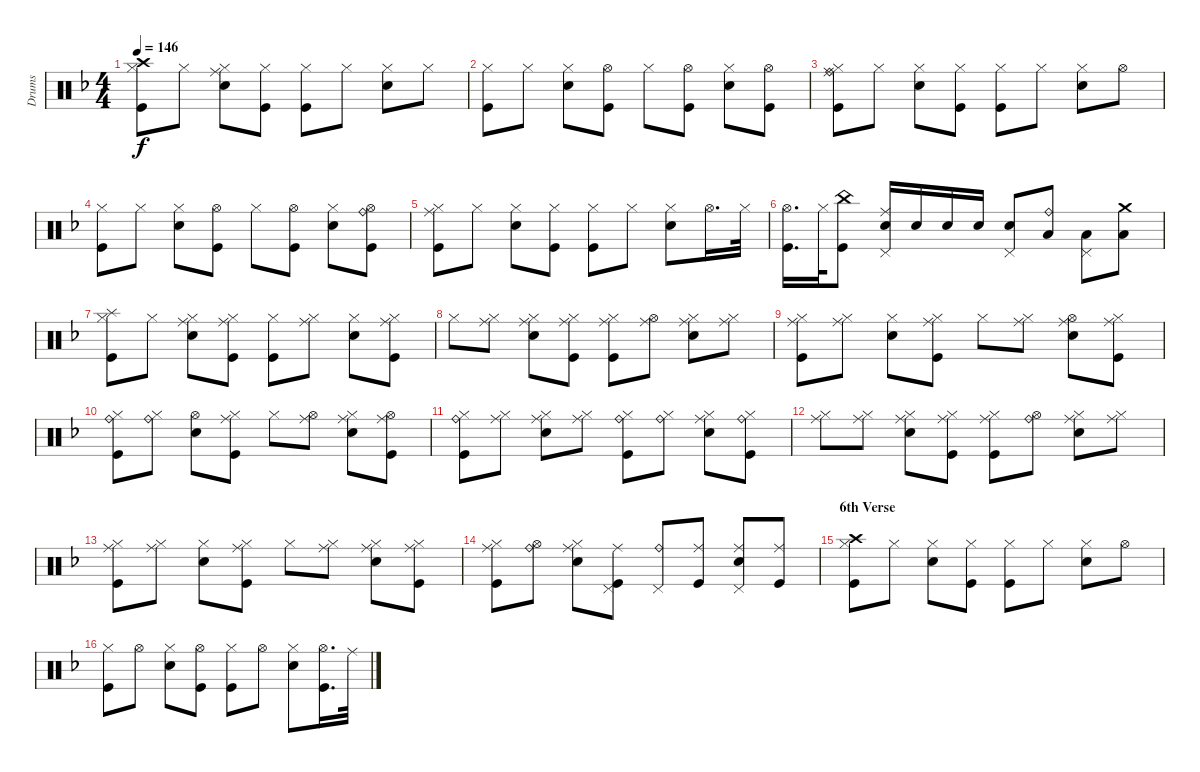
\track ("Drums" "Drums") {instrument percussion}
\staff {score}
\articulation defaults
\ts (4 4)
\tempo 146
\clef neutral
\ks f
("Hi-Hat (closed)" "Crash high (hit)" "Kick (hit)").8{dy f} "Hi-Hat (closed)".8 ("Snare (hit) 2" "Hi-Hat (closed)" "Ride (middle)").8 ("Kick (hit)" "Hi-Hat (closed)").8 ("Kick (hit)" "Hi-Hat (closed)").8 "Hi-Hat (closed)".8 ("Snare (hit) 2" "Hi-Hat (closed)").8 "Hi-Hat (closed)".8 |
("Kick (hit)" "Hi-Hat (closed)").8 "Hi-Hat (closed)".8 ("Snare (hit) 2" "Hi-Hat (closed)").8 ("Kick (hit)" "Hi-Hat (open)").8 "Hi-Hat (closed)".8 ("Kick (hit)" "Hi-Hat (open)").8 ("Snare (hit) 2" "Hi-Hat (closed)").8 ("Kick (hit)" "Hi-Hat (open)").8 |
("Kick (hit)" "Hi-Hat (closed)" "Ride (middle)" "Ride (bell)").8 "Hi-Hat (closed)".8 ("Snare (hit) 2" "Hi-Hat (closed)").8 ("Kick (hit)" "Hi-Hat (closed)").8 ("Kick (hit)" "Hi-Hat (closed)").8 "Hi-Hat (closed)".8 ("Snare (hit) 2" "Hi-Hat (closed)").8 "Hi-Hat (open)".8 |
("Kick (hit)" "Hi-Hat (closed)").8 "Hi-Hat (closed)".8 ("Snare (hit) 2" "Hi-Hat (closed)").8 ("Kick (hit)" "Hi-Hat (open)").8 "Hi-Hat (closed)".8 ("Kick (hit)" "Hi-Hat (open)").8 ("Snare (hit) 2" "Hi-Hat (closed)").8 ("Ride (bell)" "Kick (hit)" "Hi-Hat (open)").8 |
("Hi-Hat (closed)" "Ride (middle)" "Kick (hit)").8 "Hi-Hat (closed)".8 ("Snare (hit) 2" "Hi-Hat (closed)").8 ("Kick (hit)" "Hi-Hat (closed)").8 ("Kick (hit)" "Hi-Hat (closed)").8 "Hi-Hat (closed)".8 ("Snare (hit) 2" "Hi-Hat (closed)").8 "Hi-Hat (open)".16{d} "Hi-Hat (closed)".32 |
("Kick (hit)" "Hi-Hat (open)").16{d} "Hi-Hat (closed)".32 ("Kick (hit)" "China (hit)").8 ("Snare (hit) 2" "Pedal Hi-Hat (hit)" "Ride (middle)").16 "Snare (hit) 2".16 "Snare (hit) 2".16 "Snare (hit) 2".16 ("Snare (hit) 2" "Pedal Hi-Hat (hit)").8 ("Low Tom (hit)" "Ride (bell)").8 ("Low Floor Tom (hit)" "Pedal Hi-Hat (hit)").8 ("Low Floor Tom (hit)" "Crash medium (hit)").8 |
("Kick (hit)" "Hi-Hat (closed)" "Splash (hit)").8 "Hi-Hat (closed)".8 ("Snare (hit) 2" "Hi-Hat (closed)" "Ride (middle)").8 ("Kick (hit)" "Hi-Hat (closed)" "Ride (middle)").8 ("Kick (hit)" "Hi-Hat (closed)").8 ("Hi-Hat (closed)" "Ride (middle)").8 ("Snare (hit) 2" "Hi-Hat (closed)").8 ("Kick (hit)" "Hi-Hat (closed)" "Ride (middle)").8 |
"Hi-Hat (closed)".8 ("Hi-Hat (closed)" "Ride (middle)").8 ("Snare (hit) 2" "Hi-Hat (closed)" "Ride (middle)").8 ("Kick (hit)" "Hi-Hat (closed)" "Ride (middle)").8 ("Kick (hit)" "Hi-Hat (closed)" "Ride (middle)").8 ("Hi-Hat (open)" "Ride (middle)").8 ("Snare (hit) 2" "Hi-Hat (closed)" "Ride (middle)").8 ("Hi-Hat (closed)" "Ride (middle)").8 |
("Kick (hit)" "Hi-Hat (closed)" "Ride (middle)").8 ("Hi-Hat (closed)" "Ride (middle)").8 ("Snare (hit) 2" "Hi-Hat (closed)").8 ("Kick (hit)" "Hi-Hat (closed)" "Ride (middle)").8 "Hi-Hat (closed)".8 ("Hi-Hat (closed)" "Ride (middle)").8 ("Snare (hit) 2" "Hi-Hat (open)" "Ride (middle)").8 ("Kick (hit)" "Hi-Hat (closed)" "Ride (middle)").8 |
("Kick (hit)" "Hi-Hat (closed)" "Ride (bell)").8 ("Hi-Hat (closed)" "Ride (bell)").8 ("Snare (hit) 2" "Hi-Hat (open)").8 ("Ride (middle)" "Kick (hit)" "Hi-Hat (closed)").8 "Hi-Hat (closed)".8 ("Hi-Hat (open)" "Ride (middle)").8 ("Snare (hit) 2" "Hi-Hat (closed)" "Ride (middle)").8 ("Kick (hit)" "Hi-Hat (open)" "Ride (middle)").8 |
("Ride (bell)" "Kick (hit)" "Hi-Hat (closed)").8 ("Hi-Hat (closed)" "Ride (middle)").8 ("Snare (hit) 2" "Hi-Hat (closed)" "Ride (middle)").8 ("Hi-Hat (closed)" "Ride (middle)").8 ("Hi-Hat (closed)" "Ride (bell)" "Kick (hit)").8 ("Hi-Hat (closed)" "Ride (bell)").8 ("Snare (hit) 2" "Hi-Hat (closed)" "Ride (middle)").8 ("Kick (hit)" "Hi-Hat (closed)" "Ride (bell)").8 |
("Hi-Hat (closed)" "Ride (middle)").8 ("Hi-Hat (closed)" "Ride (middle)").8 ("Snare (hit) 2" "Hi-Hat (closed)" "Ride (middle)").8 ("Ride (middle)" "Kick (hit)" "Hi-Hat (closed)").8 ("Kick (hit)" "Hi-Hat (closed)" "Ride (middle)").8 ("Hi-Hat (open)" "Ride (bell)").8 ("Ride (middle)" "Snare (hit) 2" "Hi-Hat (closed)").8 ("Hi-Hat (closed)" "Ride (middle)").8 |
("Kick (hit)" "Hi-Hat (closed)" "Ride (middle)").8 ("Hi-Hat (closed)" "Ride (middle)").8 ("Snare (hit) 2" "Hi-Hat (closed)").8 ("Kick (hit)" "Hi-Hat (closed)" "Ride (middle)").8 "Hi-Hat (closed)".8 ("Hi-Hat (closed)" "Ride (middle)").8 ("Snare (hit) 2" "Hi-Hat (closed)" "Ride (middle)").8 ("Hi-Hat (closed)" "Ride (middle)" "Kick (hit)").8 |
("Kick (hit)" "Hi-Hat (closed)" "Ride (middle)").8 ("Hi-Hat (open)" "Ride (bell)").8 ("Hi-Hat (closed)" "Ride (middle)" "Snare (hit) 2").8 ("Kick (hit)" "Pedal Hi-Hat (hit)" "Ride (middle)").8 ("Pedal Hi-Hat (hit)" "Ride (bell)").8 ("Kick (hit)" "Ride (middle)").8 ("Snare (hit) 2" "Pedal Hi-Hat (hit)" "Ride (middle)").8 ("Kick (hit)" "Ride (middle)").8 |
\section ("" "6th Verse")
("Kick (hit)" "Hi-Hat (closed)" "Crash high (hit)").8 "Hi-Hat (closed)".8 ("Snare (hit) 2" "Hi-Hat (closed)").8 ("Kick (hit)" "Hi-Hat (closed)").8 ("Kick (hit)" "Hi-Hat (closed)").8 "Hi-Hat (closed)".8 ("Snare (hit) 2" "Hi-Hat (closed)").8 "Hi-Hat (open)".8 |
("Kick (hit)" "Hi-Hat (closed)").8 "Hi-Hat (open)".8 ("Snare (hit) 2" "Hi-Hat (closed)").8 ("Kick (hit)" "Hi-Hat (open)").8 ("Kick (hit)" "Hi-Hat (closed)").8 "Hi-Hat (open)".8 ("Snare (hit) 2" "Hi-Hat (closed)").8 ("Kick (hit)" "Hi-Hat (open)").16{d} "Ride (middle)".32
